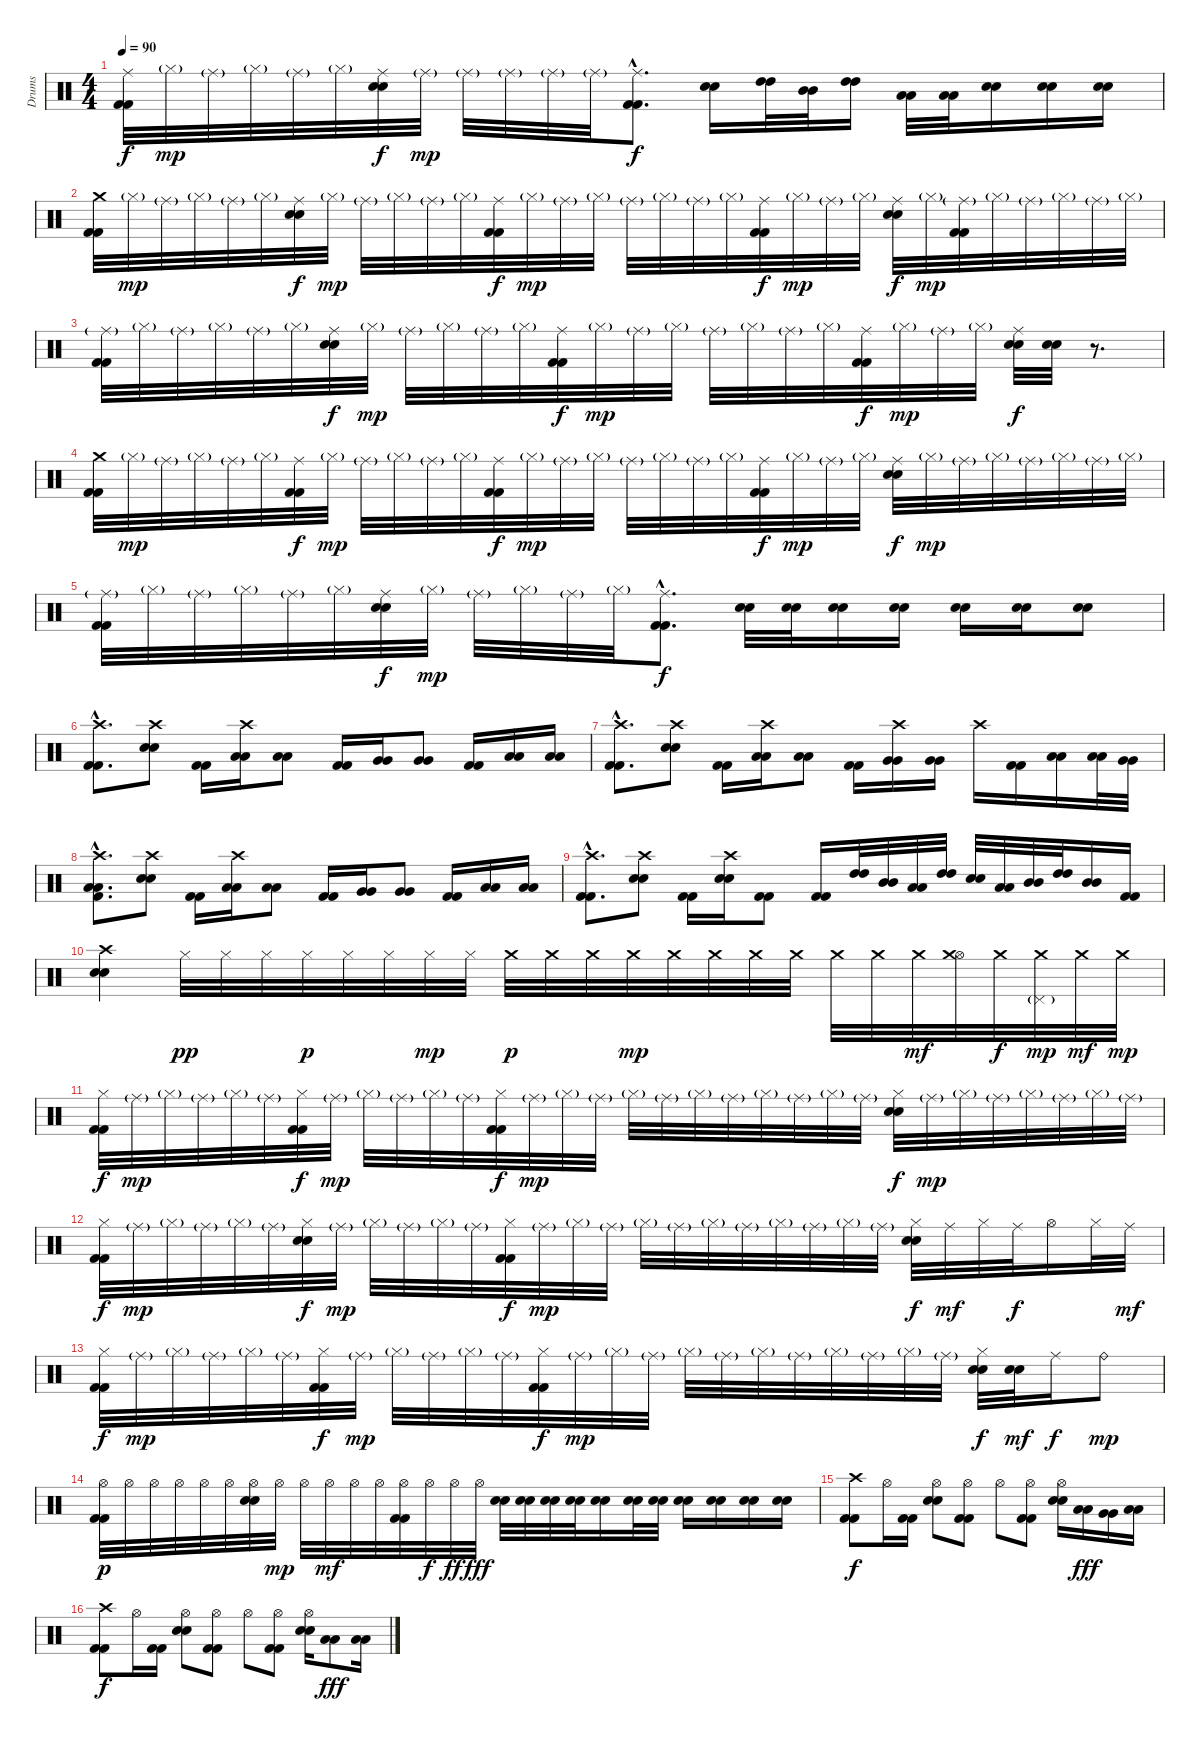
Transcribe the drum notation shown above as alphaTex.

\track ("Drums" "Drums") {instrument percussion}
\staff {score}
\articulation defaults
\ts (4 4)
\tempo 90
\clef neutral
\ks c
("Ride (middle)" "Kick (hit) 2" "Kick (hit) 2").32{dy f} "Hi-Hat (closed)"{g}.32{dy mp} "Ride (middle)"{g}.32 "Hi-Hat (closed)"{g}.32 "Ride (middle)"{g}.32 "Hi-Hat (closed)"{g}.32 ("Ride (middle)" "Electric Snare (hit)" "Snare (hit) 2").32{dy f} "Ride (middle)"{g}.32{dy mp} "Ride (middle)"{g}.32 "Ride (middle)"{g}.32 "Ride (middle)"{g}.32 "Ride (middle)"{g}.32 ("Ride (middle)"{hac} "Kick (hit) 2"{hac} "Kick (hit) 2"{hac}).8{d dy f} ("Electric Snare (hit)" "Snare (hit) 2").16 ("High Tom (hit)" "High Tom (hit)").32 ("Mid Tom (hit)" "Mid Tom (hit)").32 ("High Tom (hit)" "High Tom (hit)").16 ("Low Tom (hit)" "Low Tom (hit)").32 ("Low Tom (hit)" "Low Tom (hit)").32 ("Electric Snare (hit)" "Snare (hit) 2").16 ("Electric Snare (hit)" "Snare (hit) 2").16 ("Electric Snare (hit)" "Snare (hit) 2").16 |
("Crash medium (hit)" "Kick (hit) 2" "Kick (hit) 2").32 "Hi-Hat (closed)"{g}.32{dy mp} "Ride (middle)"{g}.32 "Hi-Hat (closed)"{g}.32 "Ride (middle)"{g}.32 "Hi-Hat (closed)"{g}.32 ("Ride (middle)" "Electric Snare (hit)" "Snare (hit) 2").32{dy f} "Hi-Hat (closed)"{g}.32{dy mp} "Ride (middle)"{g}.32 "Hi-Hat (closed)"{g}.32 "Ride (middle)"{g}.32 "Hi-Hat (closed)"{g}.32 ("Ride (middle)" "Kick (hit) 2" "Kick (hit) 2").32{dy f} "Hi-Hat (closed)"{g}.32{dy mp} "Ride (middle)"{g}.32 "Hi-Hat (closed)"{g}.32 "Ride (middle)"{g}.32 "Hi-Hat (closed)"{g}.32 "Ride (middle)"{g}.32 "Hi-Hat (closed)"{g}.32 ("Ride (middle)" "Kick (hit) 2" "Kick (hit) 2").32{dy f} "Hi-Hat (closed)"{g}.32{dy mp} "Ride (middle)"{g}.32 "Hi-Hat (closed)"{g}.32 ("Ride (middle)" "Electric Snare (hit)" "Snare (hit) 2").32{dy f} "Hi-Hat (closed)"{g}.32{dy mp} ("Ride (middle)"{g} "Kick (hit) 2" "Kick (hit) 2").32 "Hi-Hat (closed)"{g}.32 "Ride (middle)"{g}.32 "Hi-Hat (closed)"{g}.32 "Ride (middle)"{g}.32 "Hi-Hat (closed)"{g}.32 |
("Ride (middle)"{g} "Kick (hit) 2" "Kick (hit) 2").32 "Hi-Hat (closed)"{g}.32 "Ride (middle)"{g}.32 "Hi-Hat (closed)"{g}.32 "Ride (middle)"{g}.32 "Hi-Hat (closed)"{g}.32 ("Ride (middle)" "Electric Snare (hit)" "Snare (hit) 2").32{dy f} "Hi-Hat (closed)"{g}.32{dy mp} "Ride (middle)"{g}.32 "Hi-Hat (closed)"{g}.32 "Ride (middle)"{g}.32 "Hi-Hat (closed)"{g}.32 ("Ride (middle)" "Kick (hit) 2" "Kick (hit) 2").32{dy f} "Hi-Hat (closed)"{g}.32{dy mp} "Ride (middle)"{g}.32 "Hi-Hat (closed)"{g}.32 "Ride (middle)"{g}.32 "Hi-Hat (closed)"{g}.32 "Ride (middle)"{g}.32 "Hi-Hat (closed)"{g}.32 ("Ride (middle)" "Kick (hit) 2" "Kick (hit) 2").32{dy f} "Hi-Hat (closed)"{g}.32{dy mp} "Ride (middle)"{g}.32 "Hi-Hat (closed)"{g}.32 ("Ride (middle)" "Electric Snare (hit)" "Snare (hit) 2").32{dy f} ("Electric Snare (hit)" "Snare (hit) 2").32 r.8{d} |
("Crash medium (hit)" "Kick (hit) 2" "Kick (hit) 2").32 "Hi-Hat (closed)"{g}.32{dy mp} "Ride (middle)"{g}.32 "Hi-Hat (closed)"{g}.32 "Ride (middle)"{g}.32 "Hi-Hat (closed)"{g}.32 ("Ride (middle)" "Kick (hit) 2" "Kick (hit) 2").32{dy f} "Hi-Hat (closed)"{g}.32{dy mp} "Ride (middle)"{g}.32 "Hi-Hat (closed)"{g}.32 "Ride (middle)"{g}.32 "Hi-Hat (closed)"{g}.32 ("Ride (middle)" "Kick (hit) 2" "Kick (hit) 2").32{dy f} "Hi-Hat (closed)"{g}.32{dy mp} "Ride (middle)"{g}.32 "Hi-Hat (closed)"{g}.32 "Ride (middle)"{g}.32 "Hi-Hat (closed)"{g}.32 "Ride (middle)"{g}.32 "Hi-Hat (closed)"{g}.32 ("Ride (middle)" "Kick (hit) 2" "Kick (hit) 2").32{dy f} "Hi-Hat (closed)"{g}.32{dy mp} "Ride (middle)"{g}.32 "Hi-Hat (closed)"{g}.32 ("Ride (middle)" "Electric Snare (hit)" "Snare (hit) 2").32{dy f} "Hi-Hat (closed)"{g}.32{dy mp} "Ride (middle)"{g}.32 "Hi-Hat (closed)"{g}.32 "Ride (middle)"{g}.32 "Hi-Hat (closed)"{g}.32 "Ride (middle)"{g}.32 "Hi-Hat (closed)"{g}.32 |
("Ride (middle)"{g} "Kick (hit) 2" "Kick (hit) 2").32 "Hi-Hat (closed)"{g}.32 "Ride (middle)"{g}.32 "Hi-Hat (closed)"{g}.32 "Ride (middle)"{g}.32 "Hi-Hat (closed)"{g}.32 ("Ride (middle)" "Electric Snare (hit)" "Snare (hit) 2").32{dy f} "Hi-Hat (closed)"{g}.32{dy mp} "Ride (middle)"{g}.32 "Hi-Hat (closed)"{g}.32 "Ride (middle)"{g}.32 "Hi-Hat (closed)"{g}.32 ("Ride (middle)"{hac} "Kick (hit) 2"{hac} "Kick (hit) 2"{hac}).8{d dy f} ("Electric Snare (hit)" "Snare (hit) 2").32 ("Electric Snare (hit)" "Snare (hit) 2").32 ("Electric Snare (hit)" "Snare (hit) 2").16 ("Electric Snare (hit)" "Snare (hit) 2").16 ("Electric Snare (hit)" "Snare (hit) 2").16 ("Electric Snare (hit)" "Snare (hit) 2").16 ("Electric Snare (hit)" "Snare (hit) 2").8 |
("Crash high (hit)"{hac} "Kick (hit) 2"{hac} "Kick (hit) 2"{hac}).8{d} ("Crash high (hit)" "Electric Snare (hit)" "Snare (hit) 2").8 ("Kick (hit) 2" "Kick (hit) 2").16 ("Crash high (hit)" "Low Tom (hit)" "Low Tom (hit)").16 ("Low Tom (hit)" "Low Tom (hit)").8 ("Kick (hit) 2" "Kick (hit) 2").16 ("Very Low Tom (hit)" "Very Low Tom (hit)").16 ("Very Low Tom (hit)" "Very Low Tom (hit)").8 ("Kick (hit) 2" "Kick (hit) 2").16 ("Low Floor Tom (hit)" "Low Floor Tom (hit)").16 ("Low Floor Tom (hit)" "Low Floor Tom (hit)").16 |
("Crash high (hit)"{hac} "Kick (hit) 2"{hac} "Kick (hit) 2"{hac}).8{d} ("Crash high (hit)" "Electric Snare (hit)" "Snare (hit) 2").8 ("Kick (hit) 2" "Kick (hit) 2").16 ("Crash high (hit)" "Low Tom (hit)" "Low Tom (hit)").16 ("Low Tom (hit)" "Low Tom (hit)").8 ("Kick (hit) 2" "Kick (hit) 2").16 ("Crash high (hit)" "Very Low Tom (hit)" "Very Low Tom (hit)").16 ("Very Low Tom (hit)" "Very Low Tom (hit)").16 "Crash high (hit)".16 ("Kick (hit) 2" "Kick (hit) 2").16 ("Low Floor Tom (hit)" "Low Floor Tom (hit)").16 ("Low Floor Tom (hit)" "Low Floor Tom (hit)").32 ("Very Low Tom (hit)" "Very Low Tom (hit)").32 |
("Crash high (hit)"{hac} "Low Floor Tom (hit)"{hac} "Low Floor Tom (hit)"{hac} "Kick (hit) 2"{hac}).8{d} ("Crash high (hit)" "Electric Snare (hit)" "Snare (hit) 2").8 ("Kick (hit) 2" "Kick (hit) 2").16 ("Crash high (hit)" "Low Tom (hit)" "Low Tom (hit)").16 ("Low Tom (hit)" "Low Tom (hit)").8 ("Kick (hit) 2" "Kick (hit) 2").16 ("Very Low Tom (hit)" "Very Low Tom (hit)").16 ("Very Low Tom (hit)" "Very Low Tom (hit)").8 ("Kick (hit) 2" "Kick (hit) 2").16 ("Low Floor Tom (hit)" "Low Floor Tom (hit)").16 ("Low Floor Tom (hit)" "Low Floor Tom (hit)").16 |
("Crash high (hit)"{hac} "Kick (hit) 2"{hac} "Kick (hit) 2"{hac}).8{d} ("Crash high (hit)" "Electric Snare (hit)" "Snare (hit) 2").8 ("Kick (hit) 2" "Kick (hit) 2").16 ("Crash high (hit)" "Electric Snare (hit)" "Snare (hit) 2").16 ("Kick (hit) 2" "Kick (hit) 2").8 ("Kick (hit) 2" "Kick (hit) 2").16 ("High Tom (hit)" "High Tom (hit)").32 ("Mid Tom (hit)" "Mid Tom (hit)").32 ("Low Tom (hit)" "Low Tom (hit)").32 ("High Tom (hit)" "High Tom (hit)").32 ("Electric Snare (hit)" "Snare (hit) 2").32 ("Low Tom (hit)" "Low Tom (hit)").32 ("Mid Tom (hit)" "Mid Tom (hit)").32 ("High Tom (hit)" "High Tom (hit)").32 ("Mid Tom (hit)" "Mid Tom (hit)").16 ("Kick (hit) 2" "Kick (hit) 2").16 |
("Crash high (hit)" "Electric Snare (hit)" "Snare (hit) 2").4 "Hi-Hat (closed)".32{dy pp} "Hi-Hat (closed)".32 "Hi-Hat (closed)".32 "Hi-Hat (closed)".32{dy p} "Hi-Hat (closed)".32 "Hi-Hat (closed)".32 "Hi-Hat (closed)".32{dy mp} "Hi-Hat (closed)".32 "Crash medium (hit)".32{dy p} "Crash medium (hit)".32 "Crash medium (hit)".32 "Crash medium (hit)".32{dy mp} "Crash medium (hit)".32 "Crash medium (hit)".32 "Crash medium (hit)".32 "Crash medium (hit)".32 "Crash medium (hit)".32 "Crash medium (hit)".32 "Crash medium (hit)".32{dy mf} ("Hi-Hat (open)" "Crash medium (hit)").32 "Crash medium (hit)".32{dy f} ("Pedal Hi-Hat (hit)"{g} "Crash medium (hit)").32{dy mp} "Crash medium (hit)".32{dy mf} "Crash medium (hit)".32{dy mp} |
("Hi-Hat (closed)" "Kick (hit) 2" "Kick (hit) 2").32{dy f volume 10} "Ride (middle)"{g}.32{dy mp} "Hi-Hat (closed)"{g}.32 "Ride (middle)"{g}.32 "Hi-Hat (closed)"{g}.32 "Ride (middle)"{g}.32 ("Hi-Hat (closed)" "Kick (hit) 2" "Kick (hit) 2").32{dy f} "Ride (middle)"{g}.32{dy mp} "Hi-Hat (closed)"{g}.32 "Ride (middle)"{g}.32 "Hi-Hat (closed)"{g}.32 "Ride (middle)"{g}.32 ("Hi-Hat (closed)" "Kick (hit) 2" "Kick (hit) 2").32{dy f} "Ride (middle)"{g}.32{dy mp} "Hi-Hat (closed)"{g}.32 "Ride (middle)"{g}.32 "Hi-Hat (closed)"{g}.32 "Ride (middle)"{g}.32 "Hi-Hat (closed)"{g}.32 "Ride (middle)"{g}.32 "Hi-Hat (closed)"{g}.32 "Ride (middle)"{g}.32 "Hi-Hat (closed)"{g}.32 "Ride (middle)"{g}.32 ("Hi-Hat (closed)" "Electric Snare (hit)" "Snare (hit) 2").32{dy f} "Ride (middle)"{g}.32{dy mp} "Hi-Hat (closed)"{g}.32 "Ride (middle)"{g}.32 "Hi-Hat (closed)"{g}.32 "Ride (middle)"{g}.32 "Hi-Hat (closed)"{g}.32 "Ride (middle)"{g}.32 |
("Hi-Hat (closed)" "Kick (hit) 2" "Kick (hit) 2").32{dy f} "Ride (middle)"{g}.32{dy mp} "Hi-Hat (closed)"{g}.32 "Ride (middle)"{g}.32 "Hi-Hat (closed)"{g}.32 "Ride (middle)"{g}.32 ("Hi-Hat (closed)" "Electric Snare (hit)" "Snare (hit) 2").32{dy f} "Ride (middle)"{g}.32{dy mp} "Hi-Hat (closed)"{g}.32 "Ride (middle)"{g}.32 "Hi-Hat (closed)"{g}.32 "Ride (middle)"{g}.32 ("Hi-Hat (closed)" "Kick (hit) 2" "Kick (hit) 2").32{dy f} "Ride (middle)"{g}.32{dy mp} "Hi-Hat (closed)"{g}.32 "Ride (middle)"{g}.32 "Hi-Hat (closed)"{g}.32 "Ride (middle)"{g}.32 "Hi-Hat (closed)"{g}.32 "Ride (middle)"{g}.32 "Hi-Hat (closed)"{g}.32 "Ride (middle)"{g}.32 "Hi-Hat (closed)"{g}.32 "Ride (middle)"{g}.32 ("Hi-Hat (closed)" "Electric Snare (hit)" "Snare (hit) 2").32{dy f} "Ride (middle)".32{dy mf} "Hi-Hat (closed)".32 "Ride (middle)".32{dy f} "Hi-Hat (open)".16 "Hi-Hat (closed)".32 "Ride (middle)".32{dy mf} |
("Hi-Hat (closed)" "Kick (hit) 2" "Kick (hit) 2").32{dy f} "Ride (middle)"{g}.32{dy mp} "Hi-Hat (closed)"{g}.32 "Ride (middle)"{g}.32 "Hi-Hat (closed)"{g}.32 "Ride (middle)"{g}.32 ("Hi-Hat (closed)" "Kick (hit) 2" "Kick (hit) 2").32{dy f} "Ride (middle)"{g}.32{dy mp} "Hi-Hat (closed)"{g}.32 "Ride (middle)"{g}.32 "Hi-Hat (closed)"{g}.32 "Ride (middle)"{g}.32 ("Hi-Hat (closed)" "Kick (hit) 2" "Kick (hit) 2").32{dy f} "Ride (middle)"{g}.32{dy mp} "Hi-Hat (closed)"{g}.32 "Ride (middle)"{g}.32 "Hi-Hat (closed)"{g}.32 "Ride (middle)"{g}.32 "Hi-Hat (closed)"{g}.32 "Ride (middle)"{g}.32 "Hi-Hat (closed)"{g}.32 "Ride (middle)"{g}.32 "Hi-Hat (closed)"{g}.32 "Ride (middle)"{g}.32 ("Hi-Hat (closed)" "Electric Snare (hit)" "Snare (hit) 2").32{dy f} ("Electric Snare (hit)" "Snare (hit) 2").32{dy mf} "Ride (middle)".16{dy f} "Ride (bell)".8{dy mp} |
("Hi-Hat (open)" "Kick (hit) 2" "Kick (hit) 2").32{dy p} "Hi-Hat (open)".32 "Hi-Hat (open)".32 "Hi-Hat (open)".32 "Hi-Hat (open)".32 "Hi-Hat (open)".32 ("Hi-Hat (open)" "Electric Snare (hit)" "Snare (hit) 2").32 "Hi-Hat (open)".32{dy mp} "Hi-Hat (open)".32 "Hi-Hat (open)".32{dy mf} "Hi-Hat (open)".32 "Hi-Hat (open)".32 ("Hi-Hat (open)" "Kick (hit) 2" "Kick (hit) 2").32 "Hi-Hat (open)".32{dy f} "Hi-Hat (open)".32{dy ff} "Hi-Hat (open)".32{dy fff} ("Electric Snare (hit)" "Snare (hit) 2").32 ("Electric Snare (hit)" "Snare (hit) 2").32 ("Electric Snare (hit)" "Snare (hit) 2").32 ("Electric Snare (hit)" "Snare (hit) 2").32 ("Electric Snare (hit)" "Snare (hit) 2").16 ("Electric Snare (hit)" "Snare (hit) 2").32 ("Electric Snare (hit)" "Snare (hit) 2").32 ("Electric Snare (hit)" "Snare (hit) 2").16 ("Electric Snare (hit)" "Snare (hit) 2").16 ("Electric Snare (hit)" "Snare (hit) 2").16 ("Electric Snare (hit)" "Snare (hit) 2").16 |
("Crash high (hit)" "Kick (hit) 2" "Kick (hit) 2").8{dy f volume 13} "Hi-Hat (open)".16 ("Kick (hit) 2" "Kick (hit) 2").16 ("Hi-Hat (open)" "Electric Snare (hit)" "Snare (hit) 2").8 ("Hi-Hat (open)" "Kick (hit) 2" "Kick (hit) 2").8 "Hi-Hat (open)".8 ("Hi-Hat (open)" "Kick (hit) 2" "Kick (hit) 2").8 ("Hi-Hat (open)" "Electric Snare (hit)" "Snare (hit) 2").16 ("Low Tom (hit)" "Low Tom (hit)").16{dy fff} ("Very Low Tom (hit)" "Very Low Tom (hit)").16 ("Low Floor Tom (hit)" "Low Floor Tom (hit)").16 |
("Crash high (hit)" "Kick (hit) 2" "Kick (hit) 2").8{dy f} "Hi-Hat (open)".16 ("Kick (hit) 2" "Kick (hit) 2").16 ("Hi-Hat (open)" "Electric Snare (hit)" "Snare (hit) 2").8 ("Hi-Hat (open)" "Kick (hit) 2" "Kick (hit) 2").8 "Hi-Hat (open)".8 ("Hi-Hat (open)" "Kick (hit) 2" "Kick (hit) 2").8 ("Hi-Hat (open)" "Electric Snare (hit)" "Snare (hit) 2").16 ("Low Tom (hit)" "Low Tom (hit)").8{dy fff} ("Low Floor Tom (hit)" "Low Floor Tom (hit)").16
